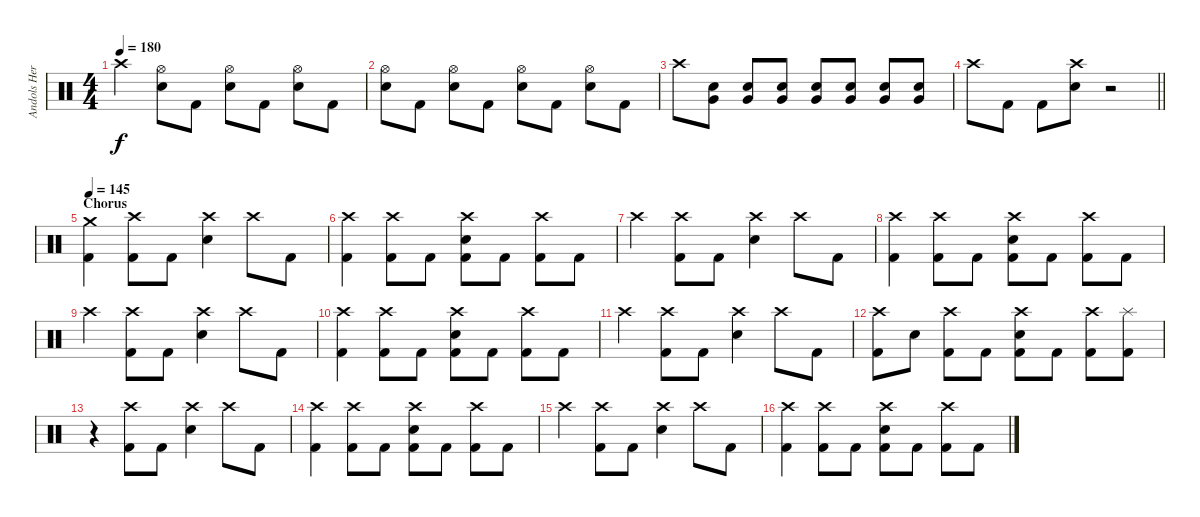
\track ("Andols Herrick" "Andols Her") {instrument percussion}
\staff {score}
\articulation defaults
\ts (4 4)
\tempo 180
\clef neutral
\ks c "Crash high (hit)".4{dy f}
("Hi-Hat (open)" "Electric Snare (hit)").8 "Kick (hit) 2".8 ("Hi-Hat (open)" "Electric Snare (hit)").8 "Kick (hit) 2".8 ("Hi-Hat (open)" "Electric Snare (hit)").8 "Kick (hit) 2".8 |
("Hi-Hat (open)" "Electric Snare (hit)").8 "Kick (hit) 2".8 ("Hi-Hat (open)" "Electric Snare (hit)").8 "Kick (hit) 2".8 ("Hi-Hat (open)" "Electric Snare (hit)").8 "Kick (hit) 2".8 ("Hi-Hat (open)" "Electric Snare (hit)").8 "Kick (hit) 2".8 |
"Crash high (hit)".8 ("Electric Snare (hit)" "Very Low Tom (hit)").8 ("Electric Snare (hit)" "Very Low Tom (hit)").8 ("Electric Snare (hit)" "Very Low Tom (hit)").8 ("Electric Snare (hit)" "Very Low Tom (hit)").8 ("Electric Snare (hit)" "Very Low Tom (hit)").8 ("Electric Snare (hit)" "Very Low Tom (hit)").8 ("Electric Snare (hit)" "Very Low Tom (hit)").8 |
\barLineRight lightlight "Crash high (hit)".8 "Kick (hit) 2".8 "Kick (hit) 2".8
("Crash high (hit)" "Electric Snare (hit)").8 r.2 |
\section ("" "Chorus")
\tempo 145
("Crash medium (hit)" "Kick (hit) 2").4 ("Crash high (hit)" "Kick (hit) 2").8 "Kick (hit) 2".8 ("Crash high (hit)" "Electric Snare (hit)").4 "Crash high (hit)".8 "Kick (hit) 2".8 |
("Crash high (hit)" "Kick (hit) 2").4 ("Crash high (hit)" "Kick (hit) 2").8 "Kick (hit) 2".8 ("Crash high (hit)" "Electric Snare (hit)" "Kick (hit) 2").8 "Kick (hit) 2".8 ("Crash high (hit)" "Kick (hit) 2").8 "Kick (hit) 2".8 |
"Crash high (hit)".4 ("Crash high (hit)" "Kick (hit) 2").8 "Kick (hit) 2".8 ("Crash high (hit)" "Electric Snare (hit)").4 "Crash high (hit)".8 "Kick (hit) 2".8 |
("Crash high (hit)" "Kick (hit) 2").4 ("Crash high (hit)" "Kick (hit) 2").8 "Kick (hit) 2".8 ("Crash high (hit)" "Electric Snare (hit)" "Kick (hit) 2").8 "Kick (hit) 2".8 ("Crash high (hit)" "Kick (hit) 2").8 "Kick (hit) 2".8 |
"Crash high (hit)".4 ("Crash high (hit)" "Kick (hit) 2").8 "Kick (hit) 2".8 ("Crash high (hit)" "Electric Snare (hit)").4 "Crash high (hit)".8 "Kick (hit) 2".8 |
("Crash high (hit)" "Kick (hit) 2").4 ("Crash high (hit)" "Kick (hit) 2").8 "Kick (hit) 2".8 ("Crash high (hit)" "Electric Snare (hit)" "Kick (hit) 2").8 "Kick (hit) 2".8 ("Crash high (hit)" "Kick (hit) 2").8 "Kick (hit) 2".8 |
"Crash high (hit)".4 ("Crash high (hit)" "Kick (hit) 2").8 "Kick (hit) 2".8 ("Crash high (hit)" "Electric Snare (hit)").4 "Crash high (hit)".8 "Kick (hit) 2".8 |
("Crash high (hit)" "Kick (hit) 2").8 "Electric Snare (hit)".8 ("Crash high (hit)" "Kick (hit) 2").8 "Kick (hit) 2".8 ("Crash high (hit)" "Electric Snare (hit)" "Kick (hit) 2").8 "Kick (hit) 2".8 ("Crash high (hit)" "Kick (hit) 2").8 ("Splash (hit)" "Kick (hit) 2").8 |
r.4 ("Crash high (hit)" "Kick (hit) 2").8 "Kick (hit) 2".8 ("Crash high (hit)" "Electric Snare (hit)").4 "Crash high (hit)".8 "Kick (hit) 2".8 |
("Crash high (hit)" "Kick (hit) 2").4 ("Crash high (hit)" "Kick (hit) 2").8 "Kick (hit) 2".8 ("Crash high (hit)" "Electric Snare (hit)" "Kick (hit) 2").8 "Kick (hit) 2".8 ("Crash high (hit)" "Kick (hit) 2").8 "Kick (hit) 2".8 |
"Crash high (hit)".4 ("Crash high (hit)" "Kick (hit) 2").8 "Kick (hit) 2".8 ("Crash high (hit)" "Electric Snare (hit)").4 "Crash high (hit)".8 "Kick (hit) 2".8 |
("Crash high (hit)" "Kick (hit) 2").4 ("Crash high (hit)" "Kick (hit) 2").8 "Kick (hit) 2".8 ("Crash high (hit)" "Electric Snare (hit)" "Kick (hit) 2").8 "Kick (hit) 2".8 ("Crash high (hit)" "Kick (hit) 2").8 "Kick (hit) 2".8
